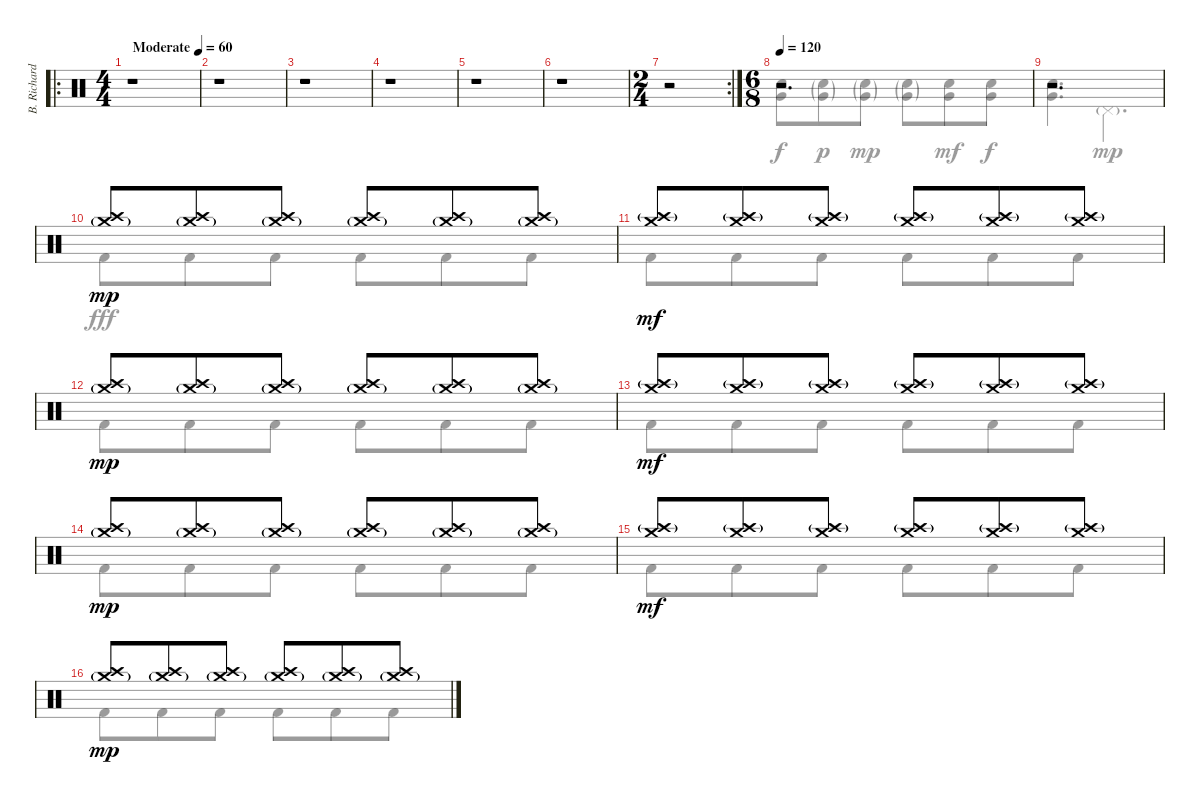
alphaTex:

\track ("B. Richardson Drums" "B. Richard") {instrument percussion}
\staff {score}
\articulation defaults
\voice
\ro
\ts (4 4)
\tempo (60 "Moderate")
\clef neutral
\ks c
r.1{dy mp} |
r.1 |
r.1 |
r.1 |
r.1 |
r.1 |
\rc 2
\ts (2 4)
r.2 |
\ts (6 8)
\tempo 120
r.2{d} |
r.2{d} |
("Crash high (hit)" "Crash medium (hit)"{g}).8 ("Crash high (hit)" "Crash medium (hit)"{g}).8 ("Crash high (hit)" "Crash medium (hit)"{g}).8 ("Crash high (hit)" "Crash medium (hit)"{g}).8 ("Crash high (hit)" "Crash medium (hit)"{g}).8 ("Crash high (hit)" "Crash medium (hit)"{g}).8 |
("Crash high (hit)"{g} "Crash medium (hit)").8{dy mf} ("Crash high (hit)"{g} "Crash medium (hit)").8 ("Crash high (hit)"{g} "Crash medium (hit)").8 ("Crash high (hit)"{g} "Crash medium (hit)").8 ("Crash high (hit)"{g} "Crash medium (hit)").8 ("Crash high (hit)"{g} "Crash medium (hit)").8 |
("Crash high (hit)" "Crash medium (hit)"{g}).8{dy mp} ("Crash high (hit)" "Crash medium (hit)"{g}).8 ("Crash high (hit)" "Crash medium (hit)"{g}).8 ("Crash high (hit)" "Crash medium (hit)"{g}).8 ("Crash high (hit)" "Crash medium (hit)"{g}).8 ("Crash high (hit)" "Crash medium (hit)"{g}).8 |
("Crash high (hit)"{g} "Crash medium (hit)").8{dy mf} ("Crash high (hit)"{g} "Crash medium (hit)").8 ("Crash high (hit)"{g} "Crash medium (hit)").8 ("Crash high (hit)"{g} "Crash medium (hit)").8 ("Crash high (hit)"{g} "Crash medium (hit)").8 ("Crash high (hit)"{g} "Crash medium (hit)").8 |
("Crash high (hit)" "Crash medium (hit)"{g}).8{dy mp} ("Crash high (hit)" "Crash medium (hit)"{g}).8 ("Crash high (hit)" "Crash medium (hit)"{g}).8 ("Crash high (hit)" "Crash medium (hit)"{g}).8 ("Crash high (hit)" "Crash medium (hit)"{g}).8 ("Crash high (hit)" "Crash medium (hit)"{g}).8 |
("Crash high (hit)"{g} "Crash medium (hit)").8{dy mf} ("Crash high (hit)"{g} "Crash medium (hit)").8 ("Crash high (hit)"{g} "Crash medium (hit)").8 ("Crash high (hit)"{g} "Crash medium (hit)").8 ("Crash high (hit)"{g} "Crash medium (hit)").8 ("Crash high (hit)"{g} "Crash medium (hit)").8 |
("Crash high (hit)" "Crash medium (hit)"{g}).8{dy mp} ("Crash high (hit)" "Crash medium (hit)"{g}).8 ("Crash high (hit)" "Crash medium (hit)"{g}).8 ("Crash high (hit)" "Crash medium (hit)"{g}).8 ("Crash high (hit)" "Crash medium (hit)"{g}).8 ("Crash high (hit)" "Crash medium (hit)"{g}).8
\voice
\clef neutral
\ottava regular
\simile none
\ks c
r.1{dy f} |
r.1 |
r.1 |
r.1 |
r.1 |
r.1 |
r.2 |
("Electric Snare (hit)" "Very Low Tom (hit)").8 ("Electric Snare (hit)"{g} "Very Low Tom (hit)"{g}).8{dy p} ("Electric Snare (hit)"{g} "Very Low Tom (hit)"{g}).8{dy mp} ("Electric Snare (hit)"{g} "Very Low Tom (hit)"{g}).8 ("Electric Snare (hit)" "Very Low Tom (hit)").8{dy mf} ("Electric Snare (hit)" "Very Low Tom (hit)").8{dy f} |
("Electric Snare (hit)" "Very Low Tom (hit)").4{d} "Pedal Hi-Hat (hit)"{g}.4{d dy mp} |
"Kick (hit) 2".8{dy fff} "Kick (hit) 2".8 "Kick (hit) 2".8 "Kick (hit) 2".8 "Kick (hit) 2".8 "Kick (hit) 2".8 |
"Kick (hit) 2".8 "Kick (hit) 2".8 "Kick (hit) 2".8 "Kick (hit) 2".8 "Kick (hit) 2".8 "Kick (hit) 2".8 |
"Kick (hit) 2".8 "Kick (hit) 2".8 "Kick (hit) 2".8 "Kick (hit) 2".8 "Kick (hit) 2".8 "Kick (hit) 2".8 |
"Kick (hit) 2".8 "Kick (hit) 2".8 "Kick (hit) 2".8 "Kick (hit) 2".8 "Kick (hit) 2".8 "Kick (hit) 2".8 |
"Kick (hit) 2".8 "Kick (hit) 2".8 "Kick (hit) 2".8 "Kick (hit) 2".8 "Kick (hit) 2".8 "Kick (hit) 2".8 |
"Kick (hit) 2".8 "Kick (hit) 2".8 "Kick (hit) 2".8 "Kick (hit) 2".8 "Kick (hit) 2".8 "Kick (hit) 2".8 |
"Kick (hit) 2".8 "Kick (hit) 2".8 "Kick (hit) 2".8 "Kick (hit) 2".8 "Kick (hit) 2".8 "Kick (hit) 2".8
